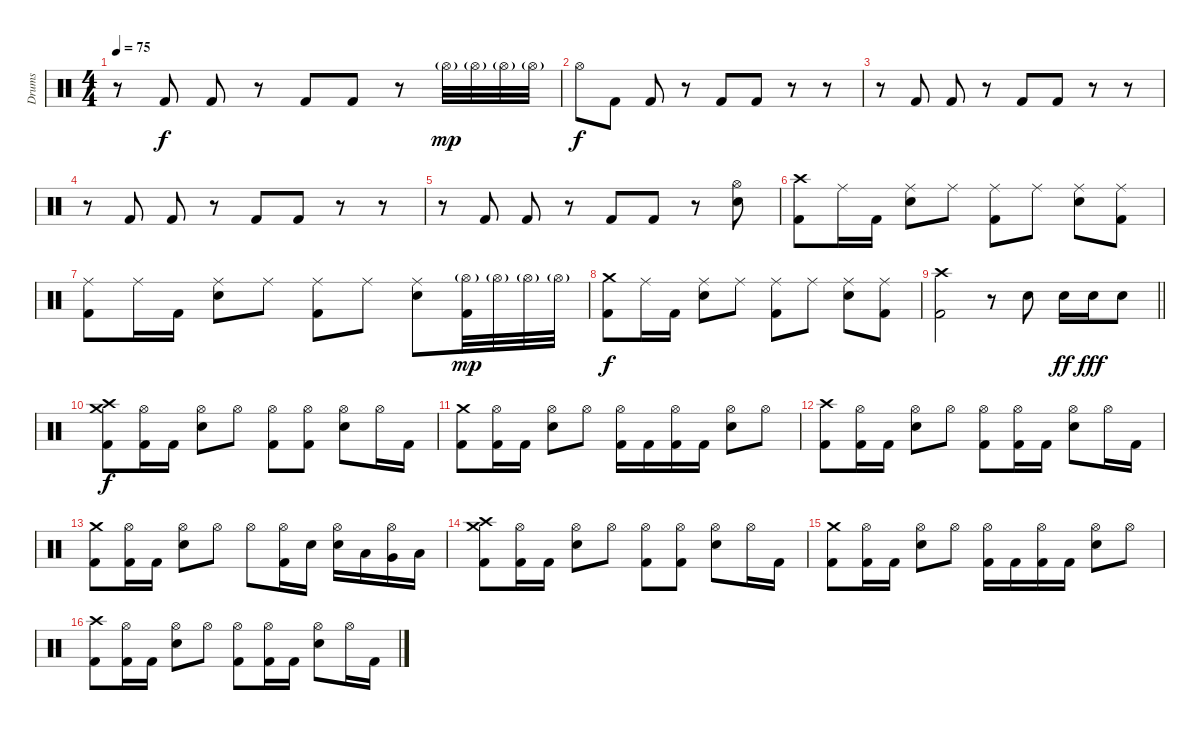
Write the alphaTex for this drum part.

\track ("Drums" "Drums") {instrument percussion}
\staff {score}
\articulation defaults
\ts (4 4)
\tempo 75
\clef neutral
\ks c
r.8{dy f} "Kick (hit) 2".8 "Kick (hit) 2".8 r.8 "Kick (hit) 2".8 "Kick (hit) 2".8 r.8 "Hi-Hat (open)"{g}.32{dy mp} "Hi-Hat (open)"{g}.32 "Hi-Hat (open)"{g}.32 "Hi-Hat (open)"{g}.32 |
"Hi-Hat (open)".8{dy f} "Kick (hit) 2".8 "Kick (hit) 2".8 r.8 "Kick (hit) 2".8 "Kick (hit) 2".8 r.8 r.8 |
r.8 "Kick (hit) 2".8 "Kick (hit) 2".8 r.8 "Kick (hit) 2".8 "Kick (hit) 2".8 r.8 r.8 |
r.8 "Kick (hit) 2".8 "Kick (hit) 2".8 r.8 "Kick (hit) 2".8 "Kick (hit) 2".8 r.8 r.8 |
r.8 "Kick (hit) 2".8 "Kick (hit) 2".8 r.8 "Kick (hit) 2".8 "Kick (hit) 2".8 r.8 ("Hi-Hat (open)" "Electric Snare (hit)").8 |
("Kick (hit) 2" "Crash high (hit)").8 "Ride (middle)".16 "Kick (hit) 2".16 ("Electric Snare (hit)" "Ride (middle)").8 "Ride (middle)".8 ("Kick (hit) 2" "Ride (middle)").8 "Ride (middle)".8 ("Electric Snare (hit)" "Ride (middle)").8 ("Kick (hit) 2" "Ride (middle)").8 |
("Kick (hit) 2" "Ride (middle)").8 "Ride (middle)".16 "Kick (hit) 2".16 ("Electric Snare (hit)" "Ride (middle)").8 "Ride (middle)".8 ("Kick (hit) 2" "Ride (middle)").8 "Ride (middle)".8 ("Electric Snare (hit)" "Ride (middle)").8 ("Kick (hit) 2" "Hi-Hat (open)"{g}).32{dy mp} "Hi-Hat (open)"{g}.32 "Hi-Hat (open)"{g}.32 "Hi-Hat (open)"{g}.32 |
("Kick (hit) 2" "Crash medium (hit)").8{dy f} "Ride (middle)".16 "Kick (hit) 2".16 ("Electric Snare (hit)" "Ride (middle)").8 "Ride (middle)".8 ("Kick (hit) 2" "Ride (middle)").8 "Ride (middle)".8 ("Electric Snare (hit)" "Ride (middle)").8 ("Kick (hit) 2" "Ride (middle)").8 |
\barLineRight lightlight
("Crash high (hit)" "Kick (hit) 2").2 r.8 "Electric Snare (hit)".8 "Electric Snare (hit)".16{dy ff} "Electric Snare (hit)".16{dy fff} "Electric Snare (hit)".8 |
("Kick (hit) 2" "Crash high (hit)" "Crash medium (hit)").8{dy f} ("Kick (hit) 2" "Hi-Hat (open)").16 "Kick (hit) 2".16 ("Electric Snare (hit)" "Hi-Hat (open)").8 "Hi-Hat (open)".8 ("Kick (hit) 2" "Hi-Hat (open)").8 ("Kick (hit) 2" "Hi-Hat (open)").8 ("Electric Snare (hit)" "Hi-Hat (open)").8 "Hi-Hat (open)".16 "Kick (hit) 2".16 |
("Kick (hit) 2" "Crash medium (hit)").8 ("Kick (hit) 2" "Hi-Hat (open)").16 "Kick (hit) 2".16 ("Electric Snare (hit)" "Hi-Hat (open)").8 "Hi-Hat (open)".8 ("Kick (hit) 2" "Hi-Hat (open)").16 "Kick (hit) 2".16 ("Kick (hit) 2" "Hi-Hat (open)").16 "Kick (hit) 2".16 ("Electric Snare (hit)" "Hi-Hat (open)").8 "Hi-Hat (open)".8 |
("Kick (hit) 2" "Crash high (hit)").8 ("Kick (hit) 2" "Hi-Hat (open)").16 "Kick (hit) 2".16 ("Electric Snare (hit)" "Hi-Hat (open)").8 "Hi-Hat (open)".8 ("Kick (hit) 2" "Hi-Hat (open)").8 ("Kick (hit) 2" "Hi-Hat (open)").16 "Kick (hit) 2".16 ("Electric Snare (hit)" "Hi-Hat (open)").8 "Hi-Hat (open)".16 "Kick (hit) 2".16 |
("Kick (hit) 2" "Crash medium (hit)").8 ("Kick (hit) 2" "Hi-Hat (open)").16 "Kick (hit) 2".16 ("Electric Snare (hit)" "Hi-Hat (open)").8 "Hi-Hat (open)".8 "Hi-Hat (open)".8 ("Kick (hit) 2" "Hi-Hat (open)").16 "Electric Snare (hit)".16 ("Electric Snare (hit)" "Hi-Hat (open)").16 "Low Tom (hit)".16 ("Very Low Tom (hit)" "Hi-Hat (open)").16 "Low Floor Tom (hit)".16 |
("Kick (hit) 2" "Crash high (hit)" "Crash medium (hit)").8 ("Kick (hit) 2" "Hi-Hat (open)").16 "Kick (hit) 2".16 ("Electric Snare (hit)" "Hi-Hat (open)").8 "Hi-Hat (open)".8 ("Kick (hit) 2" "Hi-Hat (open)").8 ("Kick (hit) 2" "Hi-Hat (open)").8 ("Electric Snare (hit)" "Hi-Hat (open)").8 "Hi-Hat (open)".16 "Kick (hit) 2".16 |
("Kick (hit) 2" "Crash medium (hit)").8 ("Kick (hit) 2" "Hi-Hat (open)").16 "Kick (hit) 2".16 ("Electric Snare (hit)" "Hi-Hat (open)").8 "Hi-Hat (open)".8 ("Kick (hit) 2" "Hi-Hat (open)").16 "Kick (hit) 2".16 ("Kick (hit) 2" "Hi-Hat (open)").16 "Kick (hit) 2".16 ("Electric Snare (hit)" "Hi-Hat (open)").8 "Hi-Hat (open)".8 |
("Kick (hit) 2" "Crash high (hit)").8 ("Kick (hit) 2" "Hi-Hat (open)").16 "Kick (hit) 2".16 ("Electric Snare (hit)" "Hi-Hat (open)").8 "Hi-Hat (open)".8 ("Kick (hit) 2" "Hi-Hat (open)").8 ("Kick (hit) 2" "Hi-Hat (open)").16 "Kick (hit) 2".16 ("Electric Snare (hit)" "Hi-Hat (open)").8 "Hi-Hat (open)".16 "Kick (hit) 2".16
